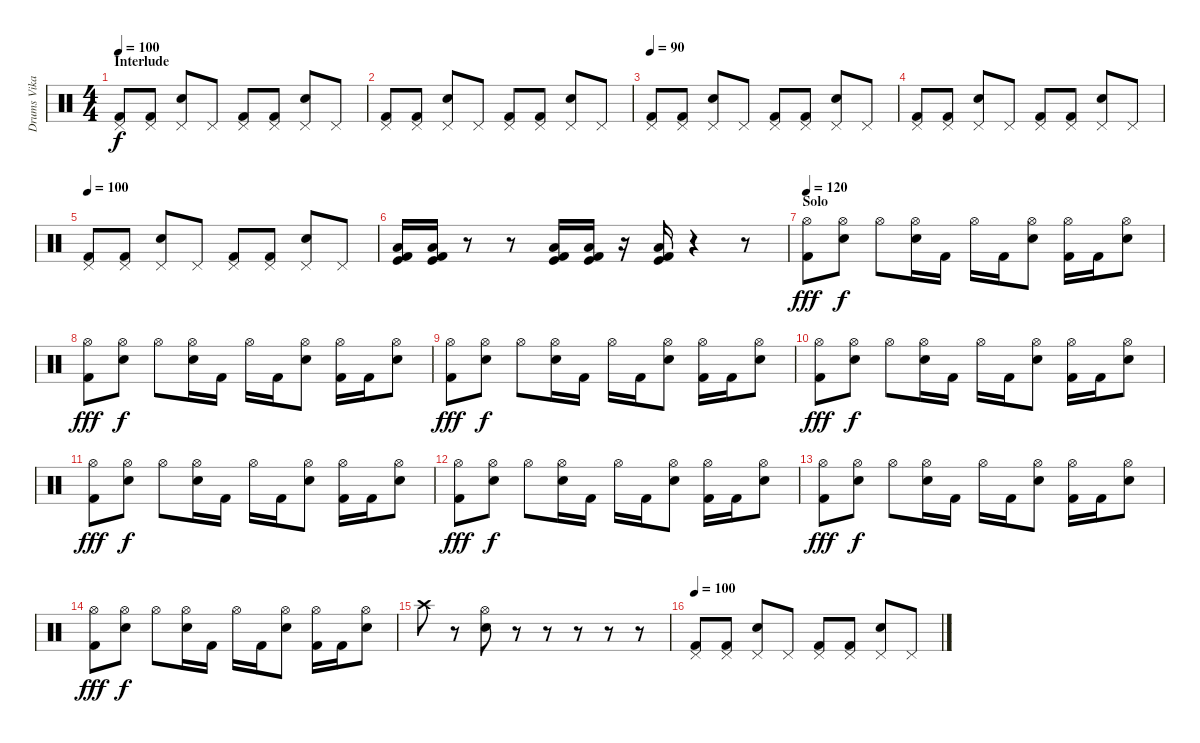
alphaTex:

\track ("Drums Vikadel" "Drums Vika") {instrument percussion}
\staff {score}
\articulation defaults
\ts (4 4)
\section ("" "Interlude")
\tempo 100
\clef neutral
\ks c
("Pedal Hi-Hat (hit)" "Kick (hit) 2").8{dy f} ("Pedal Hi-Hat (hit)" "Kick (hit) 2").8 ("Pedal Hi-Hat (hit)" "Electric Snare (hit)").8 "Pedal Hi-Hat (hit)".8 ("Pedal Hi-Hat (hit)" "Kick (hit) 2").8 ("Pedal Hi-Hat (hit)" "Kick (hit) 2").8 ("Pedal Hi-Hat (hit)" "Electric Snare (hit)").8 "Pedal Hi-Hat (hit)".8 |
("Pedal Hi-Hat (hit)" "Kick (hit) 2").8 ("Pedal Hi-Hat (hit)" "Kick (hit) 2").8 ("Pedal Hi-Hat (hit)" "Electric Snare (hit)").8 "Pedal Hi-Hat (hit)".8 ("Pedal Hi-Hat (hit)" "Kick (hit) 2").8 ("Pedal Hi-Hat (hit)" "Kick (hit) 2").8 ("Pedal Hi-Hat (hit)" "Electric Snare (hit)").8 "Pedal Hi-Hat (hit)".8 |
\tempo 90
("Pedal Hi-Hat (hit)" "Kick (hit) 2").8 ("Pedal Hi-Hat (hit)" "Kick (hit) 2").8 ("Pedal Hi-Hat (hit)" "Electric Snare (hit)").8 "Pedal Hi-Hat (hit)".8 ("Pedal Hi-Hat (hit)" "Kick (hit) 2").8 ("Pedal Hi-Hat (hit)" "Kick (hit) 2").8 ("Pedal Hi-Hat (hit)" "Electric Snare (hit)").8 "Pedal Hi-Hat (hit)".8 |
("Pedal Hi-Hat (hit)" "Kick (hit) 2").8 ("Pedal Hi-Hat (hit)" "Kick (hit) 2").8 ("Pedal Hi-Hat (hit)" "Electric Snare (hit)").8 "Pedal Hi-Hat (hit)".8 ("Pedal Hi-Hat (hit)" "Kick (hit) 2").8 ("Pedal Hi-Hat (hit)" "Kick (hit) 2").8 ("Pedal Hi-Hat (hit)" "Electric Snare (hit)").8 "Pedal Hi-Hat (hit)".8 |
\tempo 100
("Pedal Hi-Hat (hit)" "Kick (hit) 2").8 ("Pedal Hi-Hat (hit)" "Kick (hit) 2").8 ("Pedal Hi-Hat (hit)" "Electric Snare (hit)").8 "Pedal Hi-Hat (hit)".8 ("Pedal Hi-Hat (hit)" "Kick (hit) 2").8 ("Pedal Hi-Hat (hit)" "Kick (hit) 2").8 ("Pedal Hi-Hat (hit)" "Electric Snare (hit)").8 "Pedal Hi-Hat (hit)".8 |
("Low Tom (hit)" "Kick (hit)" "Kick (hit) 2").16 ("Low Tom (hit)" "Kick (hit)" "Kick (hit) 2").16 r.8 r.8 ("Low Tom (hit)" "Kick (hit)" "Kick (hit) 2").16 ("Low Tom (hit)" "Kick (hit)" "Kick (hit) 2").16 r.16 ("Low Tom (hit)" "Kick (hit)" "Kick (hit) 2").16 r.4 r.8 |
\section ("" "Solo")
\tempo 120
("Hi-Hat (open)" "Kick (hit) 2").8{dy fff volume 8} ("Hi-Hat (open)" "Electric Snare (hit)").8{dy f} "Hi-Hat (open)".8 ("Hi-Hat (open)" "Electric Snare (hit)").16 "Kick (hit) 2".16 "Hi-Hat (open)".16 "Kick (hit) 2".16 ("Hi-Hat (open)" "Electric Snare (hit)").8 ("Hi-Hat (open)" "Kick (hit) 2").16 "Kick (hit) 2".16 ("Hi-Hat (open)" "Electric Snare (hit)").8 |
("Hi-Hat (open)" "Kick (hit) 2").8{dy fff} ("Hi-Hat (open)" "Electric Snare (hit)").8{dy f} "Hi-Hat (open)".8 ("Hi-Hat (open)" "Electric Snare (hit)").16 "Kick (hit) 2".16 "Hi-Hat (open)".16 "Kick (hit) 2".16 ("Hi-Hat (open)" "Electric Snare (hit)").8 ("Hi-Hat (open)" "Kick (hit) 2").16 "Kick (hit) 2".16 ("Hi-Hat (open)" "Electric Snare (hit)").8 |
("Hi-Hat (open)" "Kick (hit) 2").8{dy fff} ("Hi-Hat (open)" "Electric Snare (hit)").8{dy f} "Hi-Hat (open)".8 ("Hi-Hat (open)" "Electric Snare (hit)").16 "Kick (hit) 2".16 "Hi-Hat (open)".16 "Kick (hit) 2".16 ("Hi-Hat (open)" "Electric Snare (hit)").8 ("Hi-Hat (open)" "Kick (hit) 2").16 "Kick (hit) 2".16 ("Hi-Hat (open)" "Electric Snare (hit)").8 |
("Hi-Hat (open)" "Kick (hit) 2").8{dy fff} ("Hi-Hat (open)" "Electric Snare (hit)").8{dy f} "Hi-Hat (open)".8 ("Hi-Hat (open)" "Electric Snare (hit)").16 "Kick (hit) 2".16 "Hi-Hat (open)".16 "Kick (hit) 2".16 ("Hi-Hat (open)" "Electric Snare (hit)").8 ("Hi-Hat (open)" "Kick (hit) 2").16 "Kick (hit) 2".16 ("Hi-Hat (open)" "Electric Snare (hit)").8 |
("Hi-Hat (open)" "Kick (hit) 2").8{dy fff} ("Hi-Hat (open)" "Electric Snare (hit)").8{dy f} "Hi-Hat (open)".8 ("Hi-Hat (open)" "Electric Snare (hit)").16 "Kick (hit) 2".16 "Hi-Hat (open)".16 "Kick (hit) 2".16 ("Hi-Hat (open)" "Electric Snare (hit)").8 ("Hi-Hat (open)" "Kick (hit) 2").16 "Kick (hit) 2".16 ("Hi-Hat (open)" "Electric Snare (hit)").8 |
("Hi-Hat (open)" "Kick (hit) 2").8{dy fff} ("Hi-Hat (open)" "Electric Snare (hit)").8{dy f} "Hi-Hat (open)".8 ("Hi-Hat (open)" "Electric Snare (hit)").16 "Kick (hit) 2".16 "Hi-Hat (open)".16 "Kick (hit) 2".16 ("Hi-Hat (open)" "Electric Snare (hit)").8 ("Hi-Hat (open)" "Kick (hit) 2").16 "Kick (hit) 2".16 ("Hi-Hat (open)" "Electric Snare (hit)").8 |
("Hi-Hat (open)" "Kick (hit) 2").8{dy fff} ("Hi-Hat (open)" "Electric Snare (hit)").8{dy f} "Hi-Hat (open)".8 ("Hi-Hat (open)" "Electric Snare (hit)").16 "Kick (hit) 2".16 "Hi-Hat (open)".16 "Kick (hit) 2".16 ("Hi-Hat (open)" "Electric Snare (hit)").8 ("Hi-Hat (open)" "Kick (hit) 2").16 "Kick (hit) 2".16 ("Hi-Hat (open)" "Electric Snare (hit)").8 |
("Hi-Hat (open)" "Kick (hit) 2").8{dy fff} ("Hi-Hat (open)" "Electric Snare (hit)").8{dy f} "Hi-Hat (open)".8 ("Hi-Hat (open)" "Electric Snare (hit)").16 "Kick (hit) 2".16 "Hi-Hat (open)".16 "Kick (hit) 2".16 ("Hi-Hat (open)" "Electric Snare (hit)").8 ("Hi-Hat (open)" "Kick (hit) 2").16 "Kick (hit) 2".16 ("Hi-Hat (open)" "Electric Snare (hit)").8 |
"Crash high (hit)".8 r.8 ("Hi-Hat (open)" "Electric Snare (hit)").8 r.8 r.8 r.8 r.8 r.8 |
\tempo 100
("Pedal Hi-Hat (hit)" "Kick (hit) 2").8{volume 11} ("Pedal Hi-Hat (hit)" "Kick (hit) 2").8 ("Pedal Hi-Hat (hit)" "Electric Snare (hit)").8 "Pedal Hi-Hat (hit)".8 ("Pedal Hi-Hat (hit)" "Kick (hit) 2").8 ("Pedal Hi-Hat (hit)" "Kick (hit) 2").8 ("Pedal Hi-Hat (hit)" "Electric Snare (hit)").8 "Pedal Hi-Hat (hit)".8
